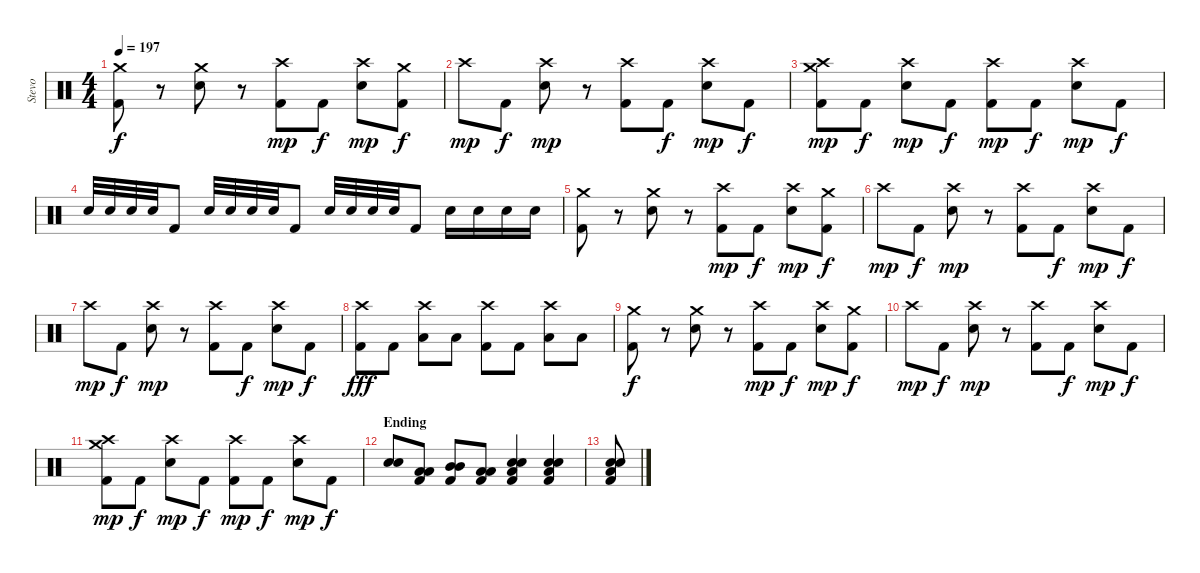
\track ("Stevo" "Stevo") {instrument percussion}
\staff {score}
\articulation defaults
\ts (4 4)
\tempo 197
\clef neutral
\ks c
("Crash medium (hit)" "Kick (hit) 2").8{dy f} r.8 ("Crash medium (hit)" "Electric Snare (hit)").8 r.8 ("Crash high (hit)" "Kick (hit) 2").8{dy mp} "Kick (hit) 2".8{dy f} ("Crash high (hit)" "Electric Snare (hit)").8{dy mp} ("Crash medium (hit)" "Kick (hit) 2").8{dy f} |
"Crash high (hit)".8{dy mp} "Kick (hit) 2".8{dy f} ("Crash high (hit)" "Electric Snare (hit)").8{dy mp} r.8 ("Crash high (hit)" "Kick (hit) 2").8 "Kick (hit) 2".8{dy f} ("Crash high (hit)" "Electric Snare (hit)").8{dy mp} "Kick (hit) 2".8{dy f} |
("Crash medium (hit)" "Crash high (hit)" "Kick (hit) 2").8{dy mp} "Kick (hit) 2".8{dy f} ("Crash high (hit)" "Electric Snare (hit)").8{dy mp} "Kick (hit) 2".8{dy f} ("Crash high (hit)" "Kick (hit) 2").8{dy mp} "Kick (hit) 2".8{dy f} ("Crash high (hit)" "Electric Snare (hit)").8{dy mp} "Kick (hit) 2".8{dy f} |
"Electric Snare (hit)".32 "Electric Snare (hit)".32 "Electric Snare (hit)".32 "Electric Snare (hit)".32 "Kick (hit) 2".8 "Electric Snare (hit)".32 "Electric Snare (hit)".32 "Electric Snare (hit)".32 "Electric Snare (hit)".32 "Kick (hit) 2".8 "Electric Snare (hit)".32 "Electric Snare (hit)".32 "Electric Snare (hit)".32 "Electric Snare (hit)".32 "Kick (hit) 2".8 "Electric Snare (hit)".16 "Electric Snare (hit)".16 "Electric Snare (hit)".16 "Electric Snare (hit)".16 |
("Crash medium (hit)" "Kick (hit) 2").8 r.8 ("Crash medium (hit)" "Electric Snare (hit)").8 r.8 ("Crash high (hit)" "Kick (hit) 2").8{dy mp} "Kick (hit) 2".8{dy f} ("Crash high (hit)" "Electric Snare (hit)").8{dy mp} ("Crash medium (hit)" "Kick (hit) 2").8{dy f} |
"Crash high (hit)".8{dy mp} "Kick (hit) 2".8{dy f} ("Crash high (hit)" "Electric Snare (hit)").8{dy mp} r.8 ("Crash high (hit)" "Kick (hit) 2").8 "Kick (hit) 2".8{dy f} ("Crash high (hit)" "Electric Snare (hit)").8{dy mp} "Kick (hit) 2".8{dy f} |
"Crash high (hit)".8{dy mp} "Kick (hit) 2".8{dy f} ("Crash high (hit)" "Electric Snare (hit)").8{dy mp} r.8 ("Crash high (hit)" "Kick (hit) 2").8 "Kick (hit) 2".8{dy f} ("Crash high (hit)" "Electric Snare (hit)").8{dy mp} "Kick (hit) 2".8{dy f} |
("Crash high (hit)" "Kick (hit) 2").8{dy fff} "Kick (hit) 2".8 ("Crash high (hit)" "Low Tom (hit)").8 "Low Floor Tom (hit)".8 ("Crash high (hit)" "Kick (hit) 2").8 "Kick (hit) 2".8 ("Crash high (hit)" "Low Tom (hit)").8 "Low Tom (hit)".8 |
("Crash medium (hit)" "Kick (hit) 2").8{dy f} r.8 ("Crash medium (hit)" "Electric Snare (hit)").8 r.8 ("Crash high (hit)" "Kick (hit) 2").8{dy mp} "Kick (hit) 2".8{dy f} ("Crash high (hit)" "Electric Snare (hit)").8{dy mp} ("Crash medium (hit)" "Kick (hit) 2").8{dy f} |
"Crash high (hit)".8{dy mp} "Kick (hit) 2".8{dy f} ("Crash high (hit)" "Electric Snare (hit)").8{dy mp} r.8 ("Crash high (hit)" "Kick (hit) 2").8 "Kick (hit) 2".8{dy f} ("Crash high (hit)" "Electric Snare (hit)").8{dy mp} "Kick (hit) 2".8{dy f} |
("Crash medium (hit)" "Crash high (hit)" "Kick (hit) 2").8{dy mp} "Kick (hit) 2".8{dy f} ("Crash high (hit)" "Electric Snare (hit)").8{dy mp} "Kick (hit) 2".8{dy f} ("Crash high (hit)" "Kick (hit) 2").8{dy mp} "Kick (hit) 2".8{dy f} ("Crash high (hit)" "Electric Snare (hit)").8{dy mp} "Kick (hit) 2".8{dy f} |
\section ("" "Ending")
("Electric Snare (hit)" "Electric Snare (hit)").8 ("Low Tom (hit)" "Low Tom (hit)" "Kick (hit) 2").8 ("Mid Tom (hit)" "Mid Tom (hit)" "Kick (hit) 2").8 ("Low Tom (hit)" "Low Tom (hit)" "Kick (hit) 2").8 ("Low Tom (hit)" "Electric Snare (hit)" "Electric Snare (hit)" "Kick (hit) 2").4 ("Low Tom (hit)" "Electric Snare (hit)" "Electric Snare (hit)" "Kick (hit) 2").4 |
("Low Tom (hit)" "Electric Snare (hit)" "Electric Snare (hit)" "Kick (hit) 2").8
